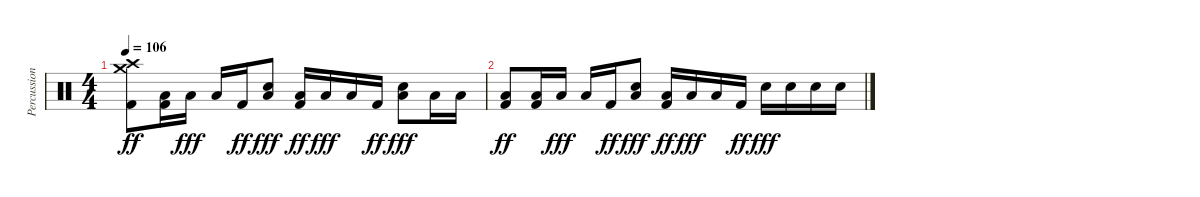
\track ("Percussion" "Percussion") {instrument percussion}
\staff {score}
\articulation defaults
\ts (4 4)
\tempo 106
\clef neutral
\ks c
("Crash medium (hit)" "Crash high (hit)" "Kick (hit) 2").8{dy ff} ("Low Floor Tom (hit)" "Kick (hit) 2").16 "Low Tom (hit)".16{dy fff} "Low Floor Tom (hit)".16 "Kick (hit) 2".16{dy ff} ("Electric Snare (hit)" "Low Floor Tom (hit)").8{dy fff} ("Low Floor Tom (hit)" "Kick (hit) 2").16{dy ff} "Low Tom (hit)".16{dy fff} "Low Floor Tom (hit)".16 "Kick (hit) 2".16{dy ff} ("Electric Snare (hit)" "Low Floor Tom (hit)").8{dy fff} "Low Tom (hit)".16 "Low Tom (hit)".16 |
("Low Floor Tom (hit)" "Kick (hit) 2").8{dy ff} ("Low Floor Tom (hit)" "Kick (hit) 2").16 "Low Tom (hit)".16{dy fff} "Low Floor Tom (hit)".16 "Kick (hit) 2".16{dy ff} ("Electric Snare (hit)" "Low Floor Tom (hit)").8{dy fff} ("Low Floor Tom (hit)" "Kick (hit) 2").16{dy ff} "Low Tom (hit)".16{dy fff} "Low Floor Tom (hit)".16 "Kick (hit) 2".16{dy ff} "Electric Snare (hit)".16{dy fff} "Electric Snare (hit)".16 "Electric Snare (hit)".16 "Electric Snare (hit)".16
